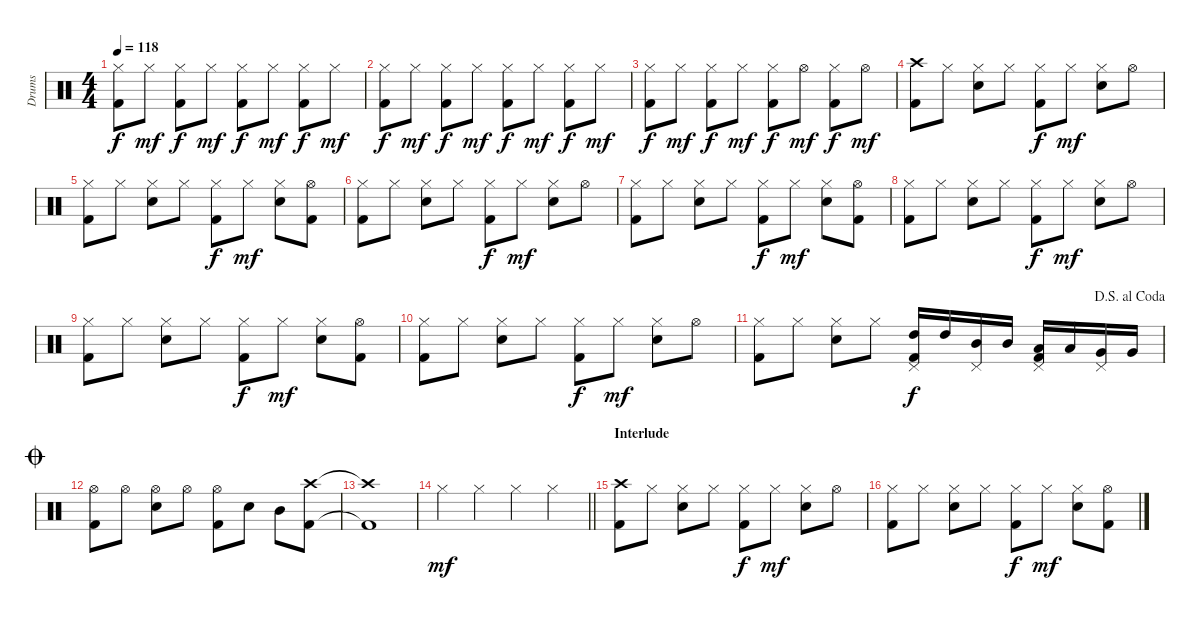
\track ("Drums" "Drums") {instrument percussion}
\staff {score}
\articulation defaults
\ts (4 4)
\tempo 118
\clef neutral
\ks c
("Hi-Hat (closed)" "Kick (hit) 2").8{dy f} "Hi-Hat (closed)".8{dy mf} ("Hi-Hat (closed)" "Kick (hit) 2").8{dy f} "Hi-Hat (closed)".8{dy mf} ("Hi-Hat (closed)" "Kick (hit) 2").8{dy f} "Hi-Hat (closed)".8{dy mf} ("Hi-Hat (closed)" "Kick (hit) 2").8{dy f} "Hi-Hat (closed)".8{dy mf} |
("Hi-Hat (closed)" "Kick (hit) 2").8{dy f} "Hi-Hat (closed)".8{dy mf} ("Hi-Hat (closed)" "Kick (hit) 2").8{dy f} "Hi-Hat (closed)".8{dy mf} ("Hi-Hat (closed)" "Kick (hit) 2").8{dy f} "Hi-Hat (closed)".8{dy mf} ("Hi-Hat (closed)" "Kick (hit) 2").8{dy f} "Hi-Hat (closed)".8{dy mf} |
("Hi-Hat (closed)" "Kick (hit) 2").8{dy f} "Hi-Hat (closed)".8{dy mf} ("Hi-Hat (closed)" "Kick (hit) 2").8{dy f} "Hi-Hat (closed)".8{dy mf} ("Hi-Hat (closed)" "Kick (hit) 2").8{dy f} "Hi-Hat (open)".8{dy mf} ("Hi-Hat (closed)" "Kick (hit) 2").8{dy f} "Hi-Hat (open)".8{dy mf} |
("Crash high (hit)" "Kick (hit) 2").8 "Hi-Hat (closed)".8 ("Hi-Hat (closed)" "Snare (hit) 2").8 "Hi-Hat (closed)".8 ("Hi-Hat (closed)" "Kick (hit) 2").8{dy f} "Hi-Hat (closed)".8{dy mf} ("Hi-Hat (closed)" "Snare (hit) 2").8 "Hi-Hat (open)".8 |
("Hi-Hat (closed)" "Kick (hit) 2").8 "Hi-Hat (closed)".8 ("Hi-Hat (closed)" "Snare (hit) 2").8 "Hi-Hat (closed)".8 ("Hi-Hat (closed)" "Kick (hit) 2").8{dy f} "Hi-Hat (closed)".8{dy mf} ("Hi-Hat (closed)" "Snare (hit) 2").8 ("Hi-Hat (open)" "Kick (hit) 2").8 |
("Hi-Hat (closed)" "Kick (hit) 2").8 "Hi-Hat (closed)".8 ("Hi-Hat (closed)" "Snare (hit) 2").8 "Hi-Hat (closed)".8 ("Hi-Hat (closed)" "Kick (hit) 2").8{dy f} "Hi-Hat (closed)".8{dy mf} ("Hi-Hat (closed)" "Snare (hit) 2").8 "Hi-Hat (open)".8 |
("Hi-Hat (closed)" "Kick (hit) 2").8 "Hi-Hat (closed)".8 ("Hi-Hat (closed)" "Snare (hit) 2").8 "Hi-Hat (closed)".8 ("Hi-Hat (closed)" "Kick (hit) 2").8{dy f} "Hi-Hat (closed)".8{dy mf} ("Hi-Hat (closed)" "Snare (hit) 2").8 ("Hi-Hat (open)" "Kick (hit) 2").8 |
("Hi-Hat (closed)" "Kick (hit) 2").8 "Hi-Hat (closed)".8 ("Hi-Hat (closed)" "Snare (hit) 2").8 "Hi-Hat (closed)".8 ("Hi-Hat (closed)" "Kick (hit) 2").8{dy f} "Hi-Hat (closed)".8{dy mf} ("Hi-Hat (closed)" "Snare (hit) 2").8 "Hi-Hat (open)".8 |
("Hi-Hat (closed)" "Kick (hit) 2").8 "Hi-Hat (closed)".8 ("Hi-Hat (closed)" "Snare (hit) 2").8 "Hi-Hat (closed)".8 ("Hi-Hat (closed)" "Kick (hit) 2").8{dy f} "Hi-Hat (closed)".8{dy mf} ("Hi-Hat (closed)" "Snare (hit) 2").8 ("Hi-Hat (open)" "Kick (hit) 2").8 |
("Hi-Hat (closed)" "Kick (hit) 2").8 "Hi-Hat (closed)".8 ("Hi-Hat (closed)" "Snare (hit) 2").8 "Hi-Hat (closed)".8 ("Hi-Hat (closed)" "Kick (hit) 2").8{dy f} "Hi-Hat (closed)".8{dy mf} ("Hi-Hat (closed)" "Snare (hit) 2").8 "Hi-Hat (open)".8 |
\jump dalsegnoalcoda
("Hi-Hat (closed)" "Kick (hit) 2").8 "Hi-Hat (closed)".8 ("Hi-Hat (closed)" "Snare (hit) 2").8 "Hi-Hat (closed)".8 ("Pedal Hi-Hat (hit)" "High Tom (hit)" "Kick (hit) 2").16{dy f} "High Tom (hit)".16 ("Pedal Hi-Hat (hit)" "Mid Tom (hit)").16 "Mid Tom (hit)".16 ("Pedal Hi-Hat (hit)" "Low Tom (hit)" "Kick (hit) 2").16 "Low Tom (hit)".16 ("Pedal Hi-Hat (hit)" "Very Low Tom (hit)").16 "Very Low Tom (hit)".16 |
\jump coda
("Hi-Hat (open)" "Kick (hit) 2").8 "Hi-Hat (open)".8 ("Hi-Hat (open)" "Snare (hit) 2").8 "Hi-Hat (open)".8 ("Hi-Hat (open)" "Kick (hit) 2").8 "Snare (hit) 2".8 "Mid Tom (hit)".8 ("Crash high (hit)" "Kick (hit) 2").8 |
("Crash high (hit)"{t} "Kick (hit) 2"{t}).1 |
\barLineRight lightlight "Hi-Hat (closed)".4{dy mf} "Hi-Hat (closed)".4 "Hi-Hat (closed)".4 "Hi-Hat (closed)".4
|
\section ("" "Interlude")
("Crash high (hit)" "Kick (hit) 2").8 "Hi-Hat (closed)".8 ("Hi-Hat (closed)" "Snare (hit) 2").8 "Hi-Hat (closed)".8 ("Hi-Hat (closed)" "Kick (hit) 2").8{dy f} "Hi-Hat (closed)".8{dy mf} ("Hi-Hat (closed)" "Snare (hit) 2").8 "Hi-Hat (open)".8 |
("Hi-Hat (closed)" "Kick (hit) 2").8 "Hi-Hat (closed)".8 ("Hi-Hat (closed)" "Snare (hit) 2").8 "Hi-Hat (closed)".8 ("Hi-Hat (closed)" "Kick (hit) 2").8{dy f} "Hi-Hat (closed)".8{dy mf} ("Hi-Hat (closed)" "Snare (hit) 2").8 ("Hi-Hat (open)" "Kick (hit) 2").8
